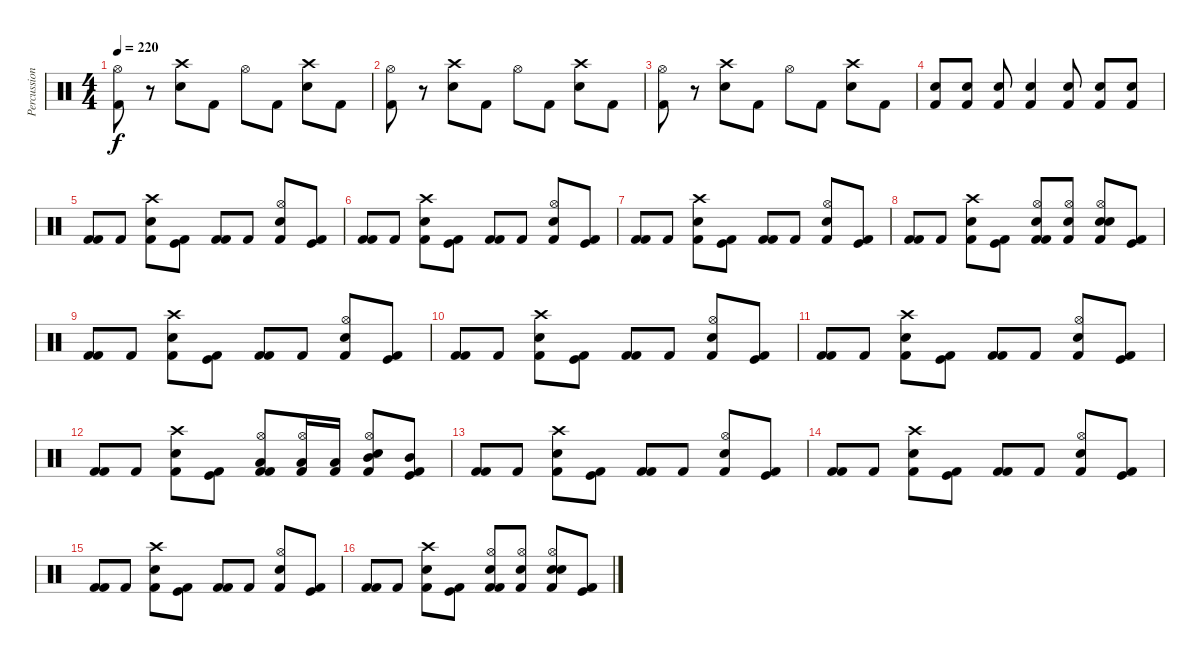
\track ("Percussion" "Percussion") {instrument percussion}
\staff {score}
\articulation defaults
\ts (4 4)
\tempo 220
\clef neutral
\ks c
("Kick (hit) 2" "Hi-Hat (open)").8{dy f} r.8 ("Snare (hit) 2" "Crash high (hit)").8 "Kick (hit) 2".8 "Hi-Hat (open)".8 "Kick (hit) 2".8 ("Snare (hit) 2" "Crash high (hit)").8 "Kick (hit) 2".8 |
("Kick (hit) 2" "Hi-Hat (open)").8 r.8 ("Snare (hit) 2" "Crash high (hit)").8 "Kick (hit) 2".8 "Hi-Hat (open)".8 "Kick (hit) 2".8 ("Snare (hit) 2" "Crash high (hit)").8 "Kick (hit) 2".8 |
("Kick (hit) 2" "Hi-Hat (open)").8 r.8 ("Snare (hit) 2" "Crash high (hit)").8 "Kick (hit) 2".8 "Hi-Hat (open)".8 "Kick (hit) 2".8 ("Snare (hit) 2" "Crash high (hit)").8 "Kick (hit) 2".8 |
("Snare (hit) 2" "Kick (hit) 2").8 ("Snare (hit) 2" "Kick (hit) 2").8 ("Snare (hit) 2" "Kick (hit) 2").8 ("Snare (hit) 2" "Kick (hit) 2").4 ("Snare (hit) 2" "Kick (hit) 2").8 ("Snare (hit) 2" "Kick (hit) 2").8 ("Snare (hit) 2" "Kick (hit) 2").8 |
("Kick (hit) 2" "Kick (hit) 2").8 "Kick (hit) 2".8 ("Snare (hit) 2" "Kick (hit) 2" "Crash high (hit)").8 ("Kick (hit)" "Kick (hit) 2").8 ("Kick (hit) 2" "Kick (hit) 2").8 "Kick (hit) 2".8 ("Snare (hit) 2" "Kick (hit) 2" "Hi-Hat (open)").8 ("Kick (hit)" "Kick (hit) 2").8 |
("Kick (hit) 2" "Kick (hit) 2").8 "Kick (hit) 2".8 ("Snare (hit) 2" "Kick (hit) 2" "Crash high (hit)").8 ("Kick (hit)" "Kick (hit) 2").8 ("Kick (hit) 2" "Kick (hit) 2").8 "Kick (hit) 2".8 ("Snare (hit) 2" "Kick (hit) 2" "Hi-Hat (open)").8 ("Kick (hit)" "Kick (hit) 2").8 |
("Kick (hit) 2" "Kick (hit) 2").8 "Kick (hit) 2".8 ("Snare (hit) 2" "Kick (hit) 2" "Crash high (hit)").8 ("Kick (hit)" "Kick (hit) 2").8 ("Kick (hit) 2" "Kick (hit) 2").8 "Kick (hit) 2".8 ("Snare (hit) 2" "Kick (hit) 2" "Hi-Hat (open)").8 ("Kick (hit)" "Kick (hit) 2").8 |
("Kick (hit) 2" "Kick (hit) 2").8 "Kick (hit) 2".8 ("Snare (hit) 2" "Kick (hit) 2" "Crash high (hit)").8 ("Kick (hit)" "Kick (hit) 2").8 ("Kick (hit) 2" "Snare (hit) 2" "Kick (hit) 2" "Hi-Hat (open)").8 ("Snare (hit) 2" "Kick (hit) 2" "Hi-Hat (open)").8 ("Snare (hit) 2" "Snare (hit) 2" "Kick (hit) 2" "Hi-Hat (open)").8 ("Kick (hit)" "Kick (hit) 2").8 |
("Kick (hit) 2" "Kick (hit) 2").8 "Kick (hit) 2".8 ("Snare (hit) 2" "Kick (hit) 2" "Crash high (hit)").8 ("Kick (hit)" "Kick (hit) 2").8 ("Kick (hit) 2" "Kick (hit) 2").8 "Kick (hit) 2".8 ("Snare (hit) 2" "Kick (hit) 2" "Hi-Hat (open)").8 ("Kick (hit)" "Kick (hit) 2").8 |
("Kick (hit) 2" "Kick (hit) 2").8 "Kick (hit) 2".8 ("Snare (hit) 2" "Kick (hit) 2" "Crash high (hit)").8 ("Kick (hit)" "Kick (hit) 2").8 ("Kick (hit) 2" "Kick (hit) 2").8 "Kick (hit) 2".8 ("Snare (hit) 2" "Kick (hit) 2" "Hi-Hat (open)").8 ("Kick (hit)" "Kick (hit) 2").8 |
("Kick (hit) 2" "Kick (hit) 2").8 "Kick (hit) 2".8 ("Snare (hit) 2" "Kick (hit) 2" "Crash high (hit)").8 ("Kick (hit)" "Kick (hit) 2").8 ("Kick (hit) 2" "Kick (hit) 2").8 "Kick (hit) 2".8 ("Snare (hit) 2" "Kick (hit) 2" "Hi-Hat (open)").8 ("Kick (hit)" "Kick (hit) 2").8 |
("Kick (hit) 2" "Kick (hit) 2").8 "Kick (hit) 2".8 ("Snare (hit) 2" "Kick (hit) 2" "Crash high (hit)").8 ("Kick (hit)" "Kick (hit) 2").8 ("Kick (hit) 2" "Low Tom (hit)" "Kick (hit) 2" "Hi-Hat (open)").8 ("Low Tom (hit)" "Kick (hit) 2" "Hi-Hat (open)").16 ("Low Tom (hit)" "Kick (hit) 2").16 ("Snare (hit) 2" "Mid Tom (hit)" "Kick (hit) 2" "Hi-Hat (open)").8 ("Kick (hit)" "Mid Tom (hit)" "Kick (hit) 2").8 |
("Kick (hit) 2" "Kick (hit) 2").8 "Kick (hit) 2".8 ("Snare (hit) 2" "Kick (hit) 2" "Crash high (hit)").8 ("Kick (hit)" "Kick (hit) 2").8 ("Kick (hit) 2" "Kick (hit) 2").8 "Kick (hit) 2".8 ("Snare (hit) 2" "Kick (hit) 2" "Hi-Hat (open)").8 ("Kick (hit)" "Kick (hit) 2").8 |
("Kick (hit) 2" "Kick (hit) 2").8 "Kick (hit) 2".8 ("Snare (hit) 2" "Kick (hit) 2" "Crash high (hit)").8 ("Kick (hit)" "Kick (hit) 2").8 ("Kick (hit) 2" "Kick (hit) 2").8 "Kick (hit) 2".8 ("Snare (hit) 2" "Kick (hit) 2" "Hi-Hat (open)").8 ("Kick (hit)" "Kick (hit) 2").8 |
("Kick (hit) 2" "Kick (hit) 2").8 "Kick (hit) 2".8 ("Snare (hit) 2" "Kick (hit) 2" "Crash high (hit)").8 ("Kick (hit)" "Kick (hit) 2").8 ("Kick (hit) 2" "Kick (hit) 2").8 "Kick (hit) 2".8 ("Snare (hit) 2" "Kick (hit) 2" "Hi-Hat (open)").8 ("Kick (hit)" "Kick (hit) 2").8 |
("Kick (hit) 2" "Kick (hit) 2").8 "Kick (hit) 2".8 ("Snare (hit) 2" "Kick (hit) 2" "Crash high (hit)").8 ("Kick (hit)" "Kick (hit) 2").8 ("Kick (hit) 2" "Snare (hit) 2" "Kick (hit) 2" "Hi-Hat (open)").8 ("Snare (hit) 2" "Kick (hit) 2" "Hi-Hat (open)").8 ("Snare (hit) 2" "Snare (hit) 2" "Kick (hit) 2" "Hi-Hat (open)").8 ("Kick (hit)" "Kick (hit) 2").8
